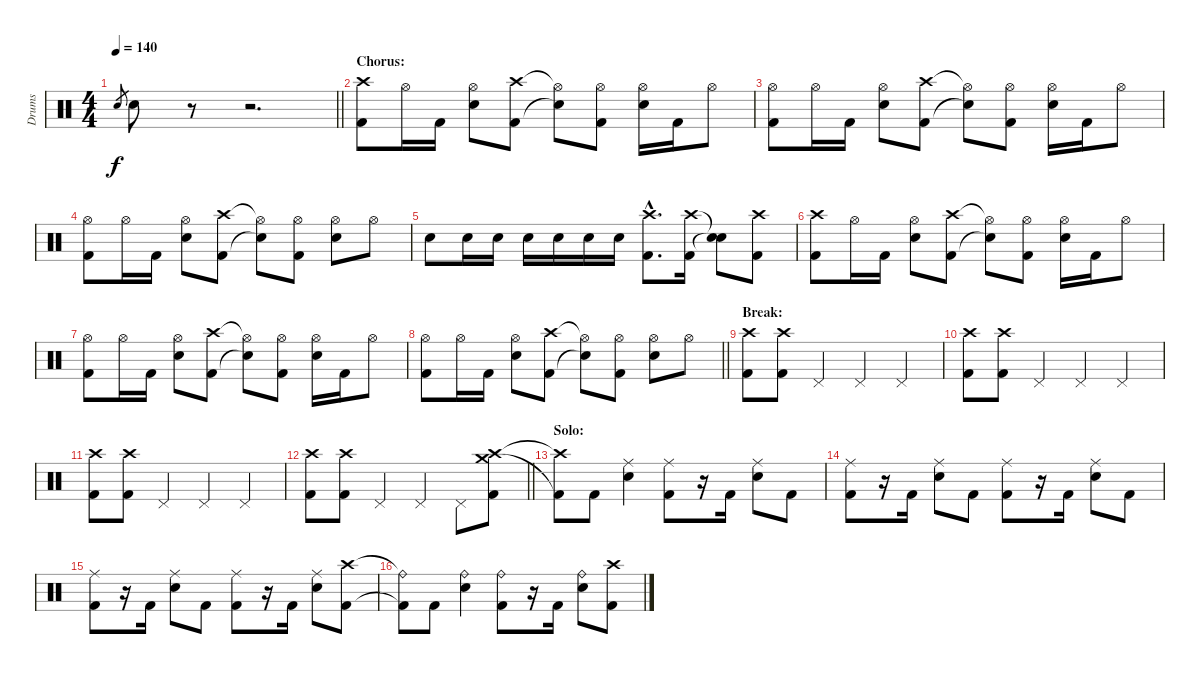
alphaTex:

\track ("Drums" "Drums") {instrument percussion}
\staff {score}
\articulation defaults
\ts (4 4)
\tempo 140
\clef neutral
\barLineRight lightlight
\ks c "Snare (hit) 2".8{gr dy f} "Snare (hit) 2".8
r.8 r.2{d} |
\section ("" "Chorus:")
("Crash high (hit)" "Kick (hit) 2").8 "Hi-Hat (open)".16 "Kick (hit) 2".16 ("Hi-Hat (open)" "Snare (hit) 2").8 ("Crash high (hit)" "Kick (hit) 2").8 ("Hi-Hat (open)"{t} "Snare (hit)"{t}).8 ("Hi-Hat (open)" "Kick (hit) 2").8 ("Hi-Hat (open)" "Snare (hit) 2").16 "Kick (hit) 2".16 "Hi-Hat (open)".8 |
("Hi-Hat (open)" "Kick (hit) 2").8 "Hi-Hat (open)".16 "Kick (hit) 2".16 ("Hi-Hat (open)" "Snare (hit) 2").8 ("Crash high (hit)" "Kick (hit) 2").8 ("Hi-Hat (open)"{t} "Snare (hit)"{t}).8 ("Hi-Hat (open)" "Kick (hit) 2").8 ("Hi-Hat (open)" "Snare (hit) 2").16 "Kick (hit) 2".16 "Hi-Hat (open)".8 |
("Hi-Hat (open)" "Kick (hit) 2").8 "Hi-Hat (open)".16 "Kick (hit) 2".16 ("Hi-Hat (open)" "Snare (hit) 2").8 ("Crash high (hit)" "Kick (hit) 2").8 ("Hi-Hat (open)"{t} "Snare (hit)"{t}).8 ("Hi-Hat (open)" "Kick (hit) 2").8 ("Hi-Hat (open)" "Snare (hit) 2").8 "Hi-Hat (open)".8 |
"Snare (hit) 2".8 "Snare (hit) 2".16 "Snare (hit) 2".16 "Snare (hit) 2".16 "Snare (hit) 2".16 "Snare (hit) 2".16 "Snare (hit) 2".16 ("Crash high (hit)"{hac} "Kick (hit) 2"{hac}).8{d} ("Crash high (hit)" "Kick (hit) 2").16 ("Snare (hit)"{t} "Snare (hit)"{t}).8 ("Crash high (hit)" "Kick (hit) 2").8 |
("Crash high (hit)" "Kick (hit) 2").8 "Hi-Hat (open)".16 "Kick (hit) 2".16 ("Hi-Hat (open)" "Snare (hit) 2").8 ("Crash high (hit)" "Kick (hit) 2").8 ("Hi-Hat (open)"{t} "Snare (hit)"{t}).8 ("Hi-Hat (open)" "Kick (hit) 2").8 ("Hi-Hat (open)" "Snare (hit) 2").16 "Kick (hit) 2".16 "Hi-Hat (open)".8 |
("Hi-Hat (open)" "Kick (hit) 2").8 "Hi-Hat (open)".16 "Kick (hit) 2".16 ("Hi-Hat (open)" "Snare (hit) 2").8 ("Crash high (hit)" "Kick (hit) 2").8 ("Hi-Hat (open)"{t} "Snare (hit)"{t}).8 ("Hi-Hat (open)" "Kick (hit) 2").8 ("Hi-Hat (open)" "Snare (hit) 2").16 "Kick (hit) 2".16 "Hi-Hat (open)".8 |
\barLineRight lightlight
("Hi-Hat (open)" "Kick (hit) 2").8 "Hi-Hat (open)".16 "Kick (hit) 2".16 ("Hi-Hat (open)" "Snare (hit) 2").8 ("Crash high (hit)" "Kick (hit) 2").8 ("Hi-Hat (open)"{t} "Snare (hit)"{t}).8 ("Hi-Hat (open)" "Kick (hit) 2").8 ("Hi-Hat (open)" "Snare (hit) 2").8 "Hi-Hat (open)".8 |
\section ("" "Break:")
("Crash high (hit)" "Kick (hit) 2").8 ("Crash high (hit)" "Kick (hit) 2").8 "Pedal Hi-Hat (hit)".4 "Pedal Hi-Hat (hit)".4 "Pedal Hi-Hat (hit)".4 |
("Crash high (hit)" "Kick (hit) 2").8 ("Crash high (hit)" "Kick (hit) 2").8 "Pedal Hi-Hat (hit)".4 "Pedal Hi-Hat (hit)".4 "Pedal Hi-Hat (hit)".4 |
("Crash high (hit)" "Kick (hit) 2").8 ("Crash high (hit)" "Kick (hit) 2").8 "Pedal Hi-Hat (hit)".4 "Pedal Hi-Hat (hit)".4 "Pedal Hi-Hat (hit)".4 |
\barLineRight lightlight
("Crash high (hit)" "Kick (hit) 2").8 ("Crash high (hit)" "Kick (hit) 2").8 "Pedal Hi-Hat (hit)".4 "Pedal Hi-Hat (hit)".4 "Pedal Hi-Hat (hit)".8 ("Crash high (hit)" "Crash medium (hit)" "Kick (hit) 2").8 |
\section ("" "Solo:")
("Crash high (hit)"{t} "Kick (hit) 2"{t}).8 "Kick (hit) 2".8 ("Ride (middle)" "Snare (hit) 2").4 ("Ride (middle)" "Kick (hit) 2").8 r.16 "Kick (hit) 2".16 ("Ride (middle)" "Snare (hit) 2").8 "Kick (hit) 2".8 |
("Ride (middle)" "Kick (hit) 2").8 r.16 "Kick (hit) 2".16 ("Ride (middle)" "Snare (hit) 2").8 "Kick (hit) 2".8 ("Ride (middle)" "Kick (hit) 2").8 r.16 "Kick (hit) 2".16 ("Ride (middle)" "Snare (hit) 2").8 "Kick (hit) 2".8 |
("Ride (middle)" "Kick (hit) 2").8 r.16 "Kick (hit) 2".16 ("Ride (middle)" "Snare (hit) 2").8 "Kick (hit) 2".8 ("Ride (middle)" "Kick (hit) 2").8 r.16 "Kick (hit) 2".16 ("Ride (middle)" "Snare (hit) 2").8 ("Crash high (hit)" "Kick (hit) 2").8 |
("Ride (bell)"{t} "Kick (hit) 2"{t}).8 "Kick (hit) 2".8 ("Ride (bell)" "Snare (hit) 2").4 ("Ride (bell)" "Kick (hit) 2").8 r.16 "Kick (hit) 2".16 ("Ride (bell)" "Snare (hit) 2").8 ("Crash high (hit)" "Kick (hit) 2").8
